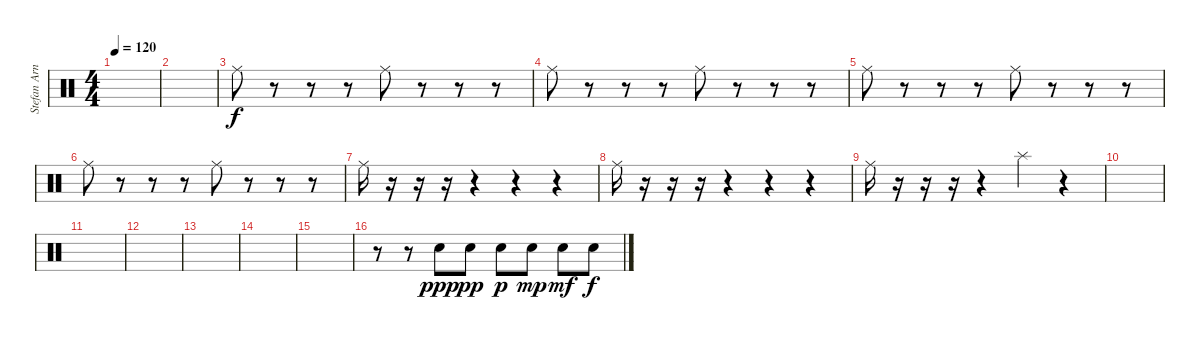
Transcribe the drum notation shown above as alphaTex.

\track ("Stefan Arnold Drums" "Stefan Arn") {instrument percussion}
\staff {score}
\articulation defaults
\ts (4 4)
\tempo 120
\clef neutral
\ks c
|
|
"Ride (middle)".8 r.8 r.8 r.8 "Ride (middle)".8 r.8 r.8 r.8 |
"Ride (middle)".8 r.8 r.8 r.8 "Ride (middle)".8 r.8 r.8 r.8 |
"Ride (middle)".8 r.8 r.8 r.8 "Ride (middle)".8 r.8 r.8 r.8 |
"Ride (middle)".8 r.8 r.8 r.8 "Ride (middle)".8 r.8 r.8 r.8 |
"Ride (middle)".16 r.16 r.16 r.16 r.4 r.4 r.4 |
"Ride (middle)".16 r.16 r.16 r.16 r.4 r.4 r.4 |
"Ride (middle)".16 r.16 r.16 r.16 r.4 "Splash (hit)".4 r.4 |
|
|
|
|
|
|
r.8 r.8 "Electric Snare (hit)".8{dy ppp} "Electric Snare (hit)".8{dy pp} "Electric Snare (hit)".8{dy p} "Electric Snare (hit)".8{dy mp} "Electric Snare (hit)".8{dy mf} "Electric Snare (hit)".8{dy f}
